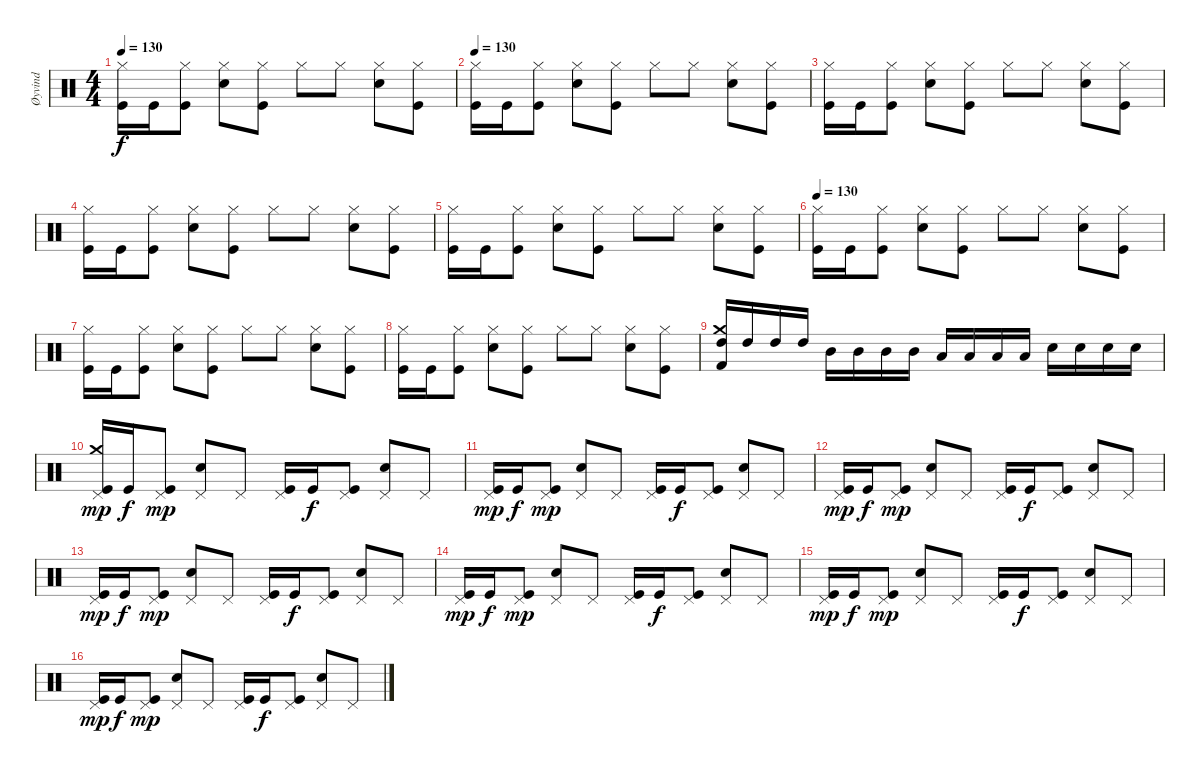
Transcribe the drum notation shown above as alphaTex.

\track ("Øyvind" "Øyvind") {instrument percussion}
\staff {score}
\articulation defaults
\ts (4 4)
\tempo 130
\clef neutral
\ks c
("Hi-Hat (closed)" "Kick (hit)").16{dy f} "Kick (hit)".16 ("Hi-Hat (closed)" "Kick (hit)").8 ("Hi-Hat (closed)" "Snare (hit) 2").8 ("Hi-Hat (closed)" "Kick (hit)").8 "Hi-Hat (closed)".8 "Hi-Hat (closed)".8 ("Hi-Hat (closed)" "Snare (hit) 2").8 ("Hi-Hat (closed)" "Kick (hit)").8 |
\tempo 130
("Hi-Hat (closed)" "Kick (hit)").16 "Kick (hit)".16 ("Hi-Hat (closed)" "Kick (hit)").8 ("Hi-Hat (closed)" "Snare (hit) 2").8 ("Hi-Hat (closed)" "Kick (hit)").8 "Hi-Hat (closed)".8 "Hi-Hat (closed)".8 ("Hi-Hat (closed)" "Snare (hit) 2").8 ("Hi-Hat (closed)" "Kick (hit)").8 |
("Hi-Hat (closed)" "Kick (hit)").16 "Kick (hit)".16 ("Hi-Hat (closed)" "Kick (hit)").8 ("Hi-Hat (closed)" "Snare (hit) 2").8 ("Hi-Hat (closed)" "Kick (hit)").8 "Hi-Hat (closed)".8 "Hi-Hat (closed)".8 ("Hi-Hat (closed)" "Snare (hit) 2").8 ("Hi-Hat (closed)" "Kick (hit)").8 |
("Hi-Hat (closed)" "Kick (hit)").16 "Kick (hit)".16 ("Hi-Hat (closed)" "Kick (hit)").8 ("Hi-Hat (closed)" "Snare (hit) 2").8 ("Hi-Hat (closed)" "Kick (hit)").8 "Hi-Hat (closed)".8 "Hi-Hat (closed)".8 ("Hi-Hat (closed)" "Snare (hit) 2").8 ("Hi-Hat (closed)" "Kick (hit)").8 |
("Hi-Hat (closed)" "Kick (hit)").16 "Kick (hit)".16 ("Hi-Hat (closed)" "Kick (hit)").8 ("Hi-Hat (closed)" "Snare (hit) 2").8 ("Hi-Hat (closed)" "Kick (hit)").8 "Hi-Hat (closed)".8 "Hi-Hat (closed)".8 ("Hi-Hat (closed)" "Snare (hit) 2").8 ("Hi-Hat (closed)" "Kick (hit)").8 |
\tempo 130
("Hi-Hat (closed)" "Kick (hit)").16 "Kick (hit)".16 ("Hi-Hat (closed)" "Kick (hit)").8 ("Hi-Hat (closed)" "Snare (hit) 2").8 ("Hi-Hat (closed)" "Kick (hit)").8 "Hi-Hat (closed)".8 "Hi-Hat (closed)".8 ("Hi-Hat (closed)" "Snare (hit) 2").8 ("Hi-Hat (closed)" "Kick (hit)").8 |
("Hi-Hat (closed)" "Kick (hit)").16 "Kick (hit)".16 ("Hi-Hat (closed)" "Kick (hit)").8 ("Hi-Hat (closed)" "Snare (hit) 2").8 ("Hi-Hat (closed)" "Kick (hit)").8 "Hi-Hat (closed)".8 "Hi-Hat (closed)".8 ("Hi-Hat (closed)" "Snare (hit) 2").8 ("Hi-Hat (closed)" "Kick (hit)").8 |
("Hi-Hat (closed)" "Kick (hit)").16 "Kick (hit)".16 ("Hi-Hat (closed)" "Kick (hit)").8 ("Hi-Hat (closed)" "Snare (hit) 2").8 ("Hi-Hat (closed)" "Kick (hit)").8 "Hi-Hat (closed)".8 "Hi-Hat (closed)".8 ("Hi-Hat (closed)" "Snare (hit) 2").8 ("Hi-Hat (closed)" "Kick (hit)").8 |
("High Tom (hit)" "Crash medium (hit)" "Kick (hit) 2").16 "High Tom (hit)".16 "High Tom (hit)".16 "High Tom (hit)".16 "Mid Tom (hit)".16 "Mid Tom (hit)".16 "Mid Tom (hit)".16 "Mid Tom (hit)".16 "Low Tom (hit)".16 "Low Tom (hit)".16 "Low Tom (hit)".16 "Low Tom (hit)".16 "Snare (hit) 2".16 "Snare (hit) 2".16 "Snare (hit) 2".16 "Snare (hit) 2".16 |
("Crash medium (hit)" "Pedal Hi-Hat (hit)" "Kick (hit)").16{dy mp} "Kick (hit)".16{dy f} ("Pedal Hi-Hat (hit)" "Kick (hit)").8{dy mp} ("Pedal Hi-Hat (hit)" "Snare (hit) 2").8 "Pedal Hi-Hat (hit)".8 ("Pedal Hi-Hat (hit)" "Kick (hit)").16 "Kick (hit)".16{dy f} ("Pedal Hi-Hat (hit)" "Kick (hit)").8 ("Pedal Hi-Hat (hit)" "Snare (hit) 2").8 "Pedal Hi-Hat (hit)".8 |
("Pedal Hi-Hat (hit)" "Kick (hit)").16{dy mp} "Kick (hit)".16{dy f} ("Pedal Hi-Hat (hit)" "Kick (hit)").8{dy mp} ("Pedal Hi-Hat (hit)" "Snare (hit) 2").8 "Pedal Hi-Hat (hit)".8 ("Pedal Hi-Hat (hit)" "Kick (hit)").16 "Kick (hit)".16{dy f} ("Pedal Hi-Hat (hit)" "Kick (hit)").8 ("Pedal Hi-Hat (hit)" "Snare (hit) 2").8 "Pedal Hi-Hat (hit)".8 |
("Pedal Hi-Hat (hit)" "Kick (hit)").16{dy mp} "Kick (hit)".16{dy f} ("Pedal Hi-Hat (hit)" "Kick (hit)").8{dy mp} ("Pedal Hi-Hat (hit)" "Snare (hit) 2").8 "Pedal Hi-Hat (hit)".8 ("Pedal Hi-Hat (hit)" "Kick (hit)").16 "Kick (hit)".16{dy f} ("Pedal Hi-Hat (hit)" "Kick (hit)").8 ("Pedal Hi-Hat (hit)" "Snare (hit) 2").8 "Pedal Hi-Hat (hit)".8 |
("Pedal Hi-Hat (hit)" "Kick (hit)").16{dy mp} "Kick (hit)".16{dy f} ("Pedal Hi-Hat (hit)" "Kick (hit)").8{dy mp} ("Pedal Hi-Hat (hit)" "Snare (hit) 2").8 "Pedal Hi-Hat (hit)".8 ("Pedal Hi-Hat (hit)" "Kick (hit)").16 "Kick (hit)".16{dy f} ("Pedal Hi-Hat (hit)" "Kick (hit)").8 ("Pedal Hi-Hat (hit)" "Snare (hit) 2").8 "Pedal Hi-Hat (hit)".8 |
("Pedal Hi-Hat (hit)" "Kick (hit)").16{dy mp} "Kick (hit)".16{dy f} ("Pedal Hi-Hat (hit)" "Kick (hit)").8{dy mp} ("Pedal Hi-Hat (hit)" "Snare (hit) 2").8 "Pedal Hi-Hat (hit)".8 ("Pedal Hi-Hat (hit)" "Kick (hit)").16 "Kick (hit)".16{dy f} ("Pedal Hi-Hat (hit)" "Kick (hit)").8 ("Pedal Hi-Hat (hit)" "Snare (hit) 2").8 "Pedal Hi-Hat (hit)".8 |
("Pedal Hi-Hat (hit)" "Kick (hit)").16{dy mp} "Kick (hit)".16{dy f} ("Pedal Hi-Hat (hit)" "Kick (hit)").8{dy mp} ("Pedal Hi-Hat (hit)" "Snare (hit) 2").8 "Pedal Hi-Hat (hit)".8 ("Pedal Hi-Hat (hit)" "Kick (hit)").16 "Kick (hit)".16{dy f} ("Pedal Hi-Hat (hit)" "Kick (hit)").8 ("Pedal Hi-Hat (hit)" "Snare (hit) 2").8 "Pedal Hi-Hat (hit)".8 |
("Pedal Hi-Hat (hit)" "Kick (hit)").16{dy mp} "Kick (hit)".16{dy f} ("Pedal Hi-Hat (hit)" "Kick (hit)").8{dy mp} ("Pedal Hi-Hat (hit)" "Snare (hit) 2").8 "Pedal Hi-Hat (hit)".8 ("Pedal Hi-Hat (hit)" "Kick (hit)").16 "Kick (hit)".16{dy f} ("Pedal Hi-Hat (hit)" "Kick (hit)").8 ("Pedal Hi-Hat (hit)" "Snare (hit) 2").8 "Pedal Hi-Hat (hit)".8
